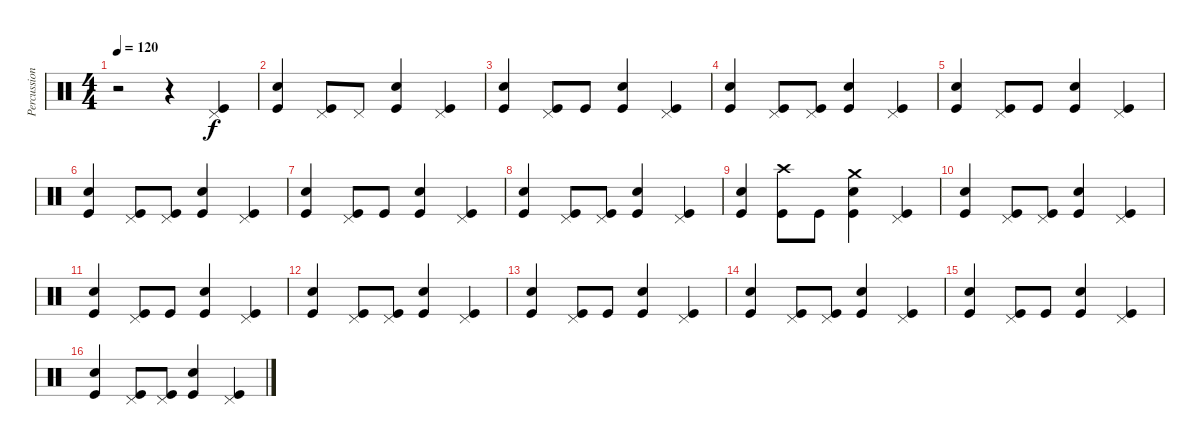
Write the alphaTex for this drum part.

\track ("Percussion" "Percussion") {instrument percussion}
\staff {score}
\articulation defaults
\ts (4 4)
\tempo 120
\clef neutral
\ks c
r.2{dy f} r.4 ("Pedal Hi-Hat (hit)" "Kick (hit)").4 |
("Snare (hit) 2" "Kick (hit)").4 ("Pedal Hi-Hat (hit)" "Kick (hit)").8 "Pedal Hi-Hat (hit)".8 ("Snare (hit) 2" "Kick (hit)").4 ("Pedal Hi-Hat (hit)" "Kick (hit)").4 |
("Snare (hit) 2" "Kick (hit)").4 ("Pedal Hi-Hat (hit)" "Kick (hit)").8 "Kick (hit)".8 ("Snare (hit) 2" "Kick (hit)").4 ("Pedal Hi-Hat (hit)" "Kick (hit)").4 |
("Snare (hit) 2" "Kick (hit)").4 ("Pedal Hi-Hat (hit)" "Kick (hit)").8 ("Pedal Hi-Hat (hit)" "Kick (hit)").8 ("Snare (hit) 2" "Kick (hit)").4 ("Pedal Hi-Hat (hit)" "Kick (hit)").4 |
("Snare (hit) 2" "Kick (hit)").4 ("Pedal Hi-Hat (hit)" "Kick (hit)").8 "Kick (hit)".8 ("Snare (hit) 2" "Kick (hit)").4 ("Pedal Hi-Hat (hit)" "Kick (hit)").4 |
("Snare (hit) 2" "Kick (hit)").4 ("Pedal Hi-Hat (hit)" "Kick (hit)").8 ("Pedal Hi-Hat (hit)" "Kick (hit)").8 ("Snare (hit) 2" "Kick (hit)").4 ("Pedal Hi-Hat (hit)" "Kick (hit)").4 |
("Snare (hit) 2" "Kick (hit)").4 ("Pedal Hi-Hat (hit)" "Kick (hit)").8 "Kick (hit)".8 ("Snare (hit) 2" "Kick (hit)").4 ("Pedal Hi-Hat (hit)" "Kick (hit)").4 |
("Snare (hit) 2" "Kick (hit)").4 ("Pedal Hi-Hat (hit)" "Kick (hit)").8 ("Pedal Hi-Hat (hit)" "Kick (hit)").8 ("Snare (hit) 2" "Kick (hit)").4 ("Pedal Hi-Hat (hit)" "Kick (hit)").4 |
("Snare (hit) 2" "Kick (hit)").4 ("Crash high (hit)" "Kick (hit)").8 "Kick (hit)".8 ("Crash medium (hit)" "Snare (hit) 2" "Kick (hit)").4 ("Pedal Hi-Hat (hit)" "Kick (hit)").4 |
("Snare (hit) 2" "Kick (hit)").4 ("Pedal Hi-Hat (hit)" "Kick (hit)").8 ("Pedal Hi-Hat (hit)" "Kick (hit)").8 ("Snare (hit) 2" "Kick (hit)").4 ("Pedal Hi-Hat (hit)" "Kick (hit)").4 |
("Snare (hit) 2" "Kick (hit)").4 ("Pedal Hi-Hat (hit)" "Kick (hit)").8 "Kick (hit)".8 ("Snare (hit) 2" "Kick (hit)").4 ("Pedal Hi-Hat (hit)" "Kick (hit)").4 |
("Snare (hit) 2" "Kick (hit)").4 ("Pedal Hi-Hat (hit)" "Kick (hit)").8 ("Pedal Hi-Hat (hit)" "Kick (hit)").8 ("Snare (hit) 2" "Kick (hit)").4 ("Pedal Hi-Hat (hit)" "Kick (hit)").4 |
("Snare (hit) 2" "Kick (hit)").4 ("Pedal Hi-Hat (hit)" "Kick (hit)").8 "Kick (hit)".8 ("Snare (hit) 2" "Kick (hit)").4 ("Pedal Hi-Hat (hit)" "Kick (hit)").4 |
("Snare (hit) 2" "Kick (hit)").4 ("Pedal Hi-Hat (hit)" "Kick (hit)").8 ("Pedal Hi-Hat (hit)" "Kick (hit)").8 ("Snare (hit) 2" "Kick (hit)").4 ("Pedal Hi-Hat (hit)" "Kick (hit)").4 |
("Snare (hit) 2" "Kick (hit)").4 ("Pedal Hi-Hat (hit)" "Kick (hit)").8 "Kick (hit)".8 ("Snare (hit) 2" "Kick (hit)").4 ("Pedal Hi-Hat (hit)" "Kick (hit)").4 |
("Snare (hit) 2" "Kick (hit)").4 ("Pedal Hi-Hat (hit)" "Kick (hit)").8 ("Pedal Hi-Hat (hit)" "Kick (hit)").8 ("Snare (hit) 2" "Kick (hit)").4 ("Pedal Hi-Hat (hit)" "Kick (hit)").4
